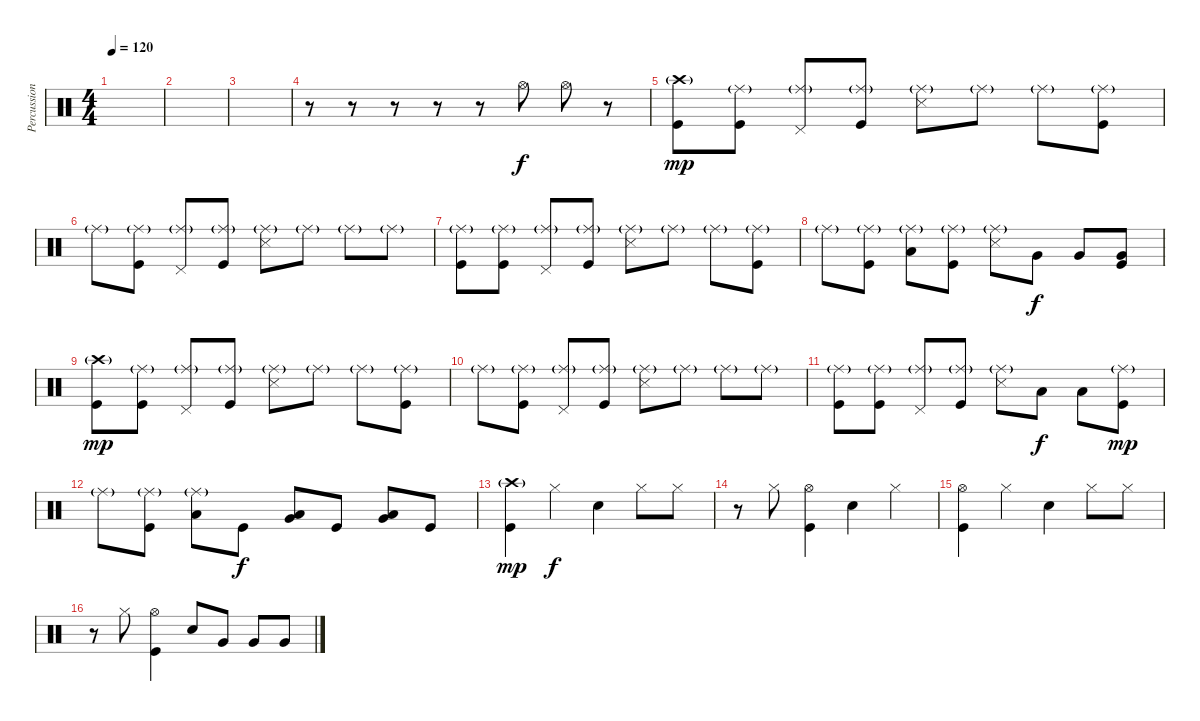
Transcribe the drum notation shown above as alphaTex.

\track ("Percussion" "Percussion") {instrument percussion}
\staff {score}
\articulation defaults
\ts (4 4)
\tempo 120
\clef neutral
\ks c
|
|
|
r.8 r.8 r.8 r.8 r.8 "Hi-Hat (open)".8 "Hi-Hat (open)".8 r.8 |
("Kick (hit)" "Crash high (hit)"{g}).8{dy mp} ("Kick (hit)" "Ride (middle)"{g}).8 ("Pedal Hi-Hat (hit)" "Ride (middle)"{g}).8 ("Kick (hit)" "Ride (middle)"{g}).8 ("Snare (side stick) 3" "Ride (middle)"{g}).8 "Ride (middle)"{g}.8 "Ride (middle)"{g}.8 ("Kick (hit)" "Ride (middle)"{g}).8 |
"Ride (middle)"{g}.8 ("Kick (hit)" "Ride (middle)"{g}).8 ("Pedal Hi-Hat (hit)" "Ride (middle)"{g}).8 ("Kick (hit)" "Ride (middle)"{g}).8 ("Snare (side stick) 3" "Ride (middle)"{g}).8 "Ride (middle)"{g}.8 "Ride (middle)"{g}.8 "Ride (middle)"{g}.8 |
("Kick (hit)" "Ride (middle)"{g}).8 ("Kick (hit)" "Ride (middle)"{g}).8 ("Pedal Hi-Hat (hit)" "Ride (middle)"{g}).8 ("Kick (hit)" "Ride (middle)"{g}).8 ("Snare (side stick) 3" "Ride (middle)"{g}).8 "Ride (middle)"{g}.8 "Ride (middle)"{g}.8 ("Kick (hit)" "Ride (middle)"{g}).8 |
"Ride (middle)"{g}.8 ("Kick (hit)" "Ride (middle)"{g}).8 ("Low Tom (hit)" "Ride (middle)"{g}).8 ("Kick (hit)" "Ride (middle)"{g}).8 ("Snare (side stick) 3" "Ride (middle)"{g}).8 "Very Low Tom (hit)".8{dy f} "Very Low Tom (hit)".8 ("Kick (hit)" "Very Low Tom (hit)").8 |
("Kick (hit)" "Crash high (hit)"{g}).8{dy mp} ("Kick (hit)" "Ride (middle)"{g}).8 ("Pedal Hi-Hat (hit)" "Ride (middle)"{g}).8 ("Kick (hit)" "Ride (middle)"{g}).8 ("Snare (side stick) 3" "Ride (middle)"{g}).8 "Ride (middle)"{g}.8 "Ride (middle)"{g}.8 ("Kick (hit)" "Ride (middle)"{g}).8 |
"Ride (middle)"{g}.8 ("Kick (hit)" "Ride (middle)"{g}).8 ("Pedal Hi-Hat (hit)" "Ride (middle)"{g}).8 ("Kick (hit)" "Ride (middle)"{g}).8 ("Snare (side stick) 3" "Ride (middle)"{g}).8 "Ride (middle)"{g}.8 "Ride (middle)"{g}.8 "Ride (middle)"{g}.8 |
("Kick (hit)" "Ride (middle)"{g}).8 ("Kick (hit)" "Ride (middle)"{g}).8 ("Pedal Hi-Hat (hit)" "Ride (middle)"{g}).8 ("Kick (hit)" "Ride (middle)"{g}).8 ("Snare (side stick) 3" "Ride (middle)"{g}).8 "Low Tom (hit)".8{dy f} "Low Tom (hit)".8 ("Kick (hit)" "Ride (middle)"{g}).8{dy mp} |
"Ride (middle)"{g}.8 ("Kick (hit)" "Ride (middle)"{g}).8 ("Low Tom (hit)" "Ride (middle)"{g}).8 "Kick (hit)".8{dy f} ("Low Floor Tom (hit)" "Very Low Tom (hit)").8 "Kick (hit)".8 ("Low Floor Tom (hit)" "Very Low Tom (hit)").8 "Kick (hit)".8 |
("Kick (hit)" "Crash high (hit)"{g}).4{dy mp} "Hi-Hat (closed)".4{dy f} "Snare (hit) 2".4 "Hi-Hat (closed)".8 "Hi-Hat (closed)".8 |
r.8 "Hi-Hat (closed)".8 ("Kick (hit)" "Hi-Hat (open)").4 "Snare (hit) 2".4 "Hi-Hat (closed)".4 |
("Kick (hit)" "Hi-Hat (open)").4 "Hi-Hat (closed)".4 "Snare (hit) 2".4 "Hi-Hat (closed)".8 "Hi-Hat (closed)".8 |
r.8 "Hi-Hat (closed)".8 ("Kick (hit)" "Hi-Hat (open)").4 "Snare (hit) 2".8 "Very Low Tom (hit)".8 "Very Low Tom (hit)".8 "Very Low Tom (hit)".8
